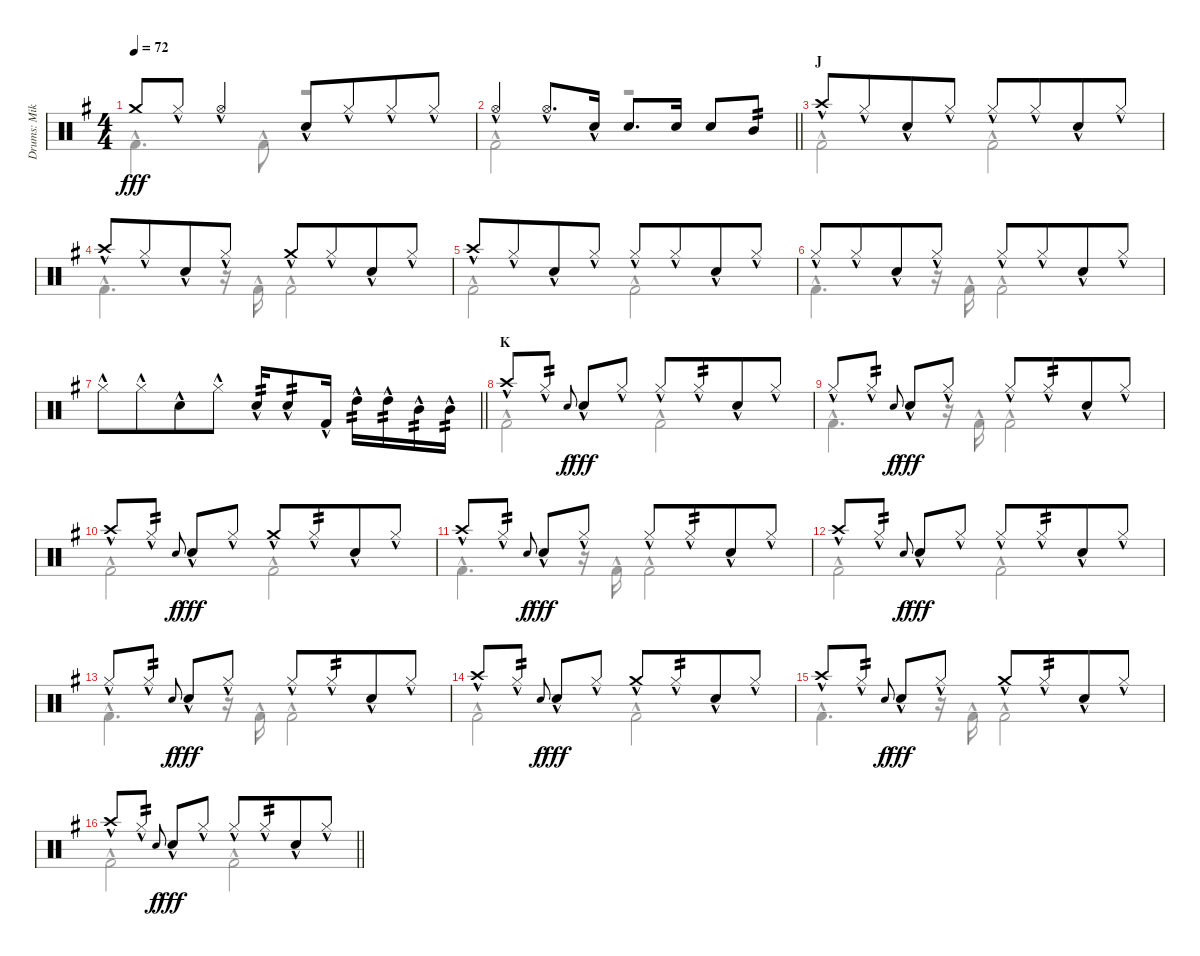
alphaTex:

\track ("Drums: Mike" "Drums: Mik") {instrument percussion}
\staff {score}
\articulation defaults
\voice
\ts (4 4)
\tempo 72
\clef neutral
\ks g "Crash medium (hit)".8{dy fff} "Hi-Hat (closed)"{hac}.8 "Hi-Hat (open)"{hac}.4 "Electric Snare (hit)"{hac}.8 "Hi-Hat (closed)"{hac}.8{beam merge} "Hi-Hat (closed)"{hac}.8 "Hi-Hat (closed)"{hac}.8
|
\barLineRight lightlight "Hi-Hat (open)"{hac}.4 "Hi-Hat (open)"{hac}.8{d} "Snare (hit) 2"{hac}.16 "Snare (hit) 2".8{d beam merge} "Snare (hit) 2".16 "Snare (hit) 2".8 "Mid Tom (hit)".8{tp 2}
|
\section ("" "J")
"Crash high (hit)"{hac}.8 "Hi-Hat (closed)"{hac}.8{beam merge} "Electric Snare (hit)"{hac}.8 "Hi-Hat (closed)"{hac}.8 "Hi-Hat (closed)"{hac}.8 "Hi-Hat (closed)"{hac}.8{beam merge} "Snare (hit) 2"{hac}.8 "Hi-Hat (closed)"{hac}.8 |
"Crash high (hit)"{hac}.8 "Hi-Hat (closed)"{hac}.8{beam merge} "Electric Snare (hit)"{hac}.8 "Hi-Hat (closed)"{hac}.8 "Crash medium (hit)"{hac}.8 "Hi-Hat (closed)"{hac}.8{beam merge} "Snare (hit) 2"{hac}.8 "Hi-Hat (closed)"{hac}.8 |
"Crash high (hit)"{hac}.8 "Hi-Hat (closed)"{hac}.8{beam merge} "Electric Snare (hit)"{hac}.8 "Hi-Hat (closed)"{hac}.8 "Hi-Hat (closed)"{hac}.8 "Hi-Hat (closed)"{hac}.8{beam merge} "Snare (hit) 2"{hac}.8 "Hi-Hat (closed)"{hac}.8 |
"Hi-Hat (closed)"{hac}.8 "Hi-Hat (closed)"{hac}.8{beam merge} "Electric Snare (hit)"{hac}.8 "Hi-Hat (closed)"{hac}.8 "Hi-Hat (closed)"{hac}.8 "Hi-Hat (closed)"{hac}.8{beam merge} "Snare (hit) 2"{hac}.8 "Hi-Hat (closed)"{hac}.8 |
\barLineRight lightlight "Hi-Hat (closed)"{hac}.8 "Hi-Hat (closed)"{hac}.8{beam merge} "Electric Snare (hit)"{hac}.8 "Hi-Hat (closed)"{hac}.8 "Electric Snare (hit)"{hac}.16{tp 2} "Electric Snare (hit)"{hac}.8{tp 2} "Kick (hit) 2"{hac}.16 "High Tom (hit)"{hac}.16{tp 2} "High Tom (hit)"{hac}.16{tp 2} "Mid Tom (hit)"{hac}.16{tp 2} "Mid Tom (hit)"{hac}.16{tp 2}
|
\section ("" "K")
"Crash high (hit)"{hac}.8 "Hi-Hat (closed)"{hac}.8{tp 2} "Electric Snare (hit)".8{gr onbeat dy f beam merge} "Snare (hit) 2"{hac}.8{dy fff} "Hi-Hat (closed)"{hac}.8 "Hi-Hat (closed)"{hac}.8 "Hi-Hat (closed)"{hac}.8{tp 2 beam merge} "Snare (hit) 2"{hac}.8 "Hi-Hat (closed)"{hac}.8 |
"Hi-Hat (closed)"{hac}.8 "Hi-Hat (closed)"{hac}.8{tp 2} "Electric Snare (hit)".8{gr onbeat dy f beam merge} "Snare (hit) 2"{hac}.8{dy fff} "Hi-Hat (closed)"{hac}.8 "Hi-Hat (closed)"{hac}.8 "Hi-Hat (closed)"{hac}.8{tp 2 beam merge} "Snare (hit) 2"{hac}.8 "Hi-Hat (closed)"{hac}.8 |
"Crash high (hit)"{hac}.8 "Hi-Hat (closed)"{hac}.8{tp 2} "Electric Snare (hit)".8{gr onbeat dy f beam merge} "Snare (hit) 2"{hac}.8{dy fff} "Hi-Hat (closed)"{hac}.8 "Crash medium (hit)"{hac}.8 "Hi-Hat (closed)"{hac}.8{tp 2 beam merge} "Snare (hit) 2"{hac}.8 "Hi-Hat (closed)"{hac}.8 |
"Crash high (hit)"{hac}.8 "Hi-Hat (closed)"{hac}.8{tp 2} "Electric Snare (hit)".8{gr onbeat dy f beam merge} "Snare (hit) 2"{hac}.8{dy fff} "Hi-Hat (closed)"{hac}.8 "Hi-Hat (closed)"{hac}.8 "Hi-Hat (closed)"{hac}.8{tp 2 beam merge} "Snare (hit) 2"{hac}.8 "Hi-Hat (closed)"{hac}.8 |
"Crash high (hit)"{hac}.8 "Hi-Hat (closed)"{hac}.8{tp 2} "Electric Snare (hit)".8{gr onbeat dy f beam merge} "Snare (hit) 2"{hac}.8{dy fff} "Hi-Hat (closed)"{hac}.8 "Hi-Hat (closed)"{hac}.8 "Hi-Hat (closed)"{hac}.8{tp 2 beam merge} "Snare (hit) 2"{hac}.8 "Hi-Hat (closed)"{hac}.8 |
"Hi-Hat (closed)"{hac}.8 "Hi-Hat (closed)"{hac}.8{tp 2} "Electric Snare (hit)".8{gr onbeat dy f beam merge} "Snare (hit) 2"{hac}.8{dy fff} "Hi-Hat (closed)"{hac}.8 "Hi-Hat (closed)"{hac}.8 "Hi-Hat (closed)"{hac}.8{tp 2 beam merge} "Snare (hit) 2"{hac}.8 "Hi-Hat (closed)"{hac}.8 |
"Crash high (hit)"{hac}.8 "Hi-Hat (closed)"{hac}.8{tp 2} "Electric Snare (hit)".8{gr onbeat dy f beam merge} "Snare (hit) 2"{hac}.8{dy fff} "Hi-Hat (closed)"{hac}.8 "Crash medium (hit)"{hac}.8 "Hi-Hat (closed)"{hac}.8{tp 2 beam merge} "Snare (hit) 2"{hac}.8 "Hi-Hat (closed)"{hac}.8 |
"Crash high (hit)"{hac}.8 "Hi-Hat (closed)"{hac}.8{tp 2} "Electric Snare (hit)".8{gr onbeat dy f beam merge} "Snare (hit) 2"{hac}.8{dy fff} "Hi-Hat (closed)"{hac}.8 "Crash medium (hit)"{hac}.8 "Hi-Hat (closed)"{hac}.8{tp 2 beam merge} "Snare (hit) 2"{hac}.8 "Hi-Hat (closed)"{hac}.8 |
\barLineRight lightlight "Crash high (hit)"{hac}.8 "Hi-Hat (closed)"{hac}.8{tp 2} "Electric Snare (hit)".8{gr onbeat dy f beam merge} "Snare (hit) 2"{hac}.8{dy fff} "Hi-Hat (closed)"{hac}.8 "Hi-Hat (closed)"{hac}.8 "Hi-Hat (closed)"{hac}.8{tp 2 beam merge} "Snare (hit) 2"{hac}.8 "Hi-Hat (closed)"{hac}.8
\voice
\clef neutral
\ottava regular
\simile none
\ks g "Kick (hit) 2"{hac}.4{d dy fff} "Kick (hit) 2"{hac}.8
r.2 |
\barLineRight lightlight "Kick (hit) 2"{hac}.2
r.2 |
"Kick (hit) 2"{hac}.2 "Kick (hit) 2"{hac}.2 |
"Kick (hit) 2"{hac}.4{d} r.16 "Kick (hit) 2"{hac}.16 "Kick (hit) 2"{hac}.2 |
"Kick (hit) 2"{hac}.2 "Kick (hit) 2"{hac}.2 |
"Kick (hit) 2"{hac}.4{d} r.16 "Kick (hit) 2"{hac}.16 "Kick (hit) 2"{hac}.2 |
\barLineRight lightlight
|
"Kick (hit) 2"{hac}.2 "Kick (hit) 2"{hac}.2 |
"Kick (hit) 2"{hac}.4{d} r.16 "Kick (hit) 2"{hac}.16 "Kick (hit) 2"{hac}.2 |
"Kick (hit) 2"{hac}.2 "Kick (hit) 2"{hac}.2 |
"Kick (hit) 2"{hac}.4{d} r.16 "Kick (hit) 2"{hac}.16 "Kick (hit) 2"{hac}.2 |
"Kick (hit) 2"{hac}.2 "Kick (hit) 2"{hac}.2 |
"Kick (hit) 2"{hac}.4{d} r.16 "Kick (hit) 2"{hac}.16 "Kick (hit) 2"{hac}.2 |
"Kick (hit) 2"{hac}.2 "Kick (hit) 2"{hac}.2 |
"Kick (hit) 2"{hac}.4{d} r.16 "Kick (hit) 2"{hac}.16 "Kick (hit) 2"{hac}.2 |
\barLineRight lightlight "Kick (hit) 2"{hac}.2 "Kick (hit) 2"{hac}.2
